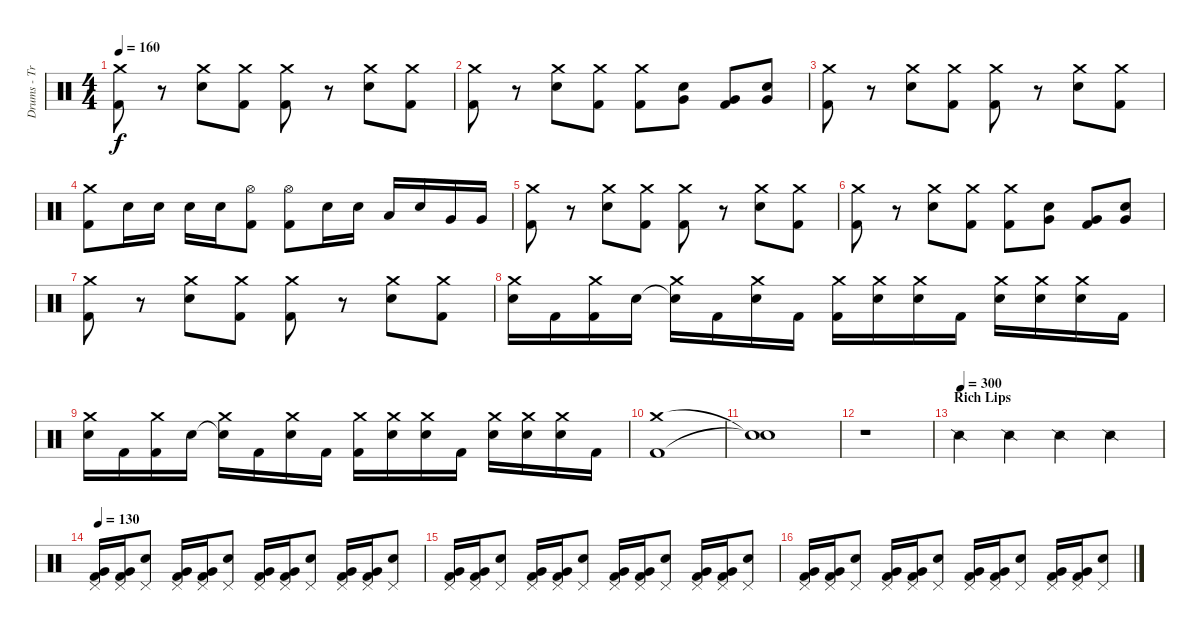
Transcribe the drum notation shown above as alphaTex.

\track ("Drums - Travis Barker" "Drums - Tr") {instrument percussion}
\staff {score}
\articulation defaults
\ts (4 4)
\tempo 160
\clef neutral
\ks c
("Kick (hit) 2" "Crash medium (hit)").8{dy f} r.8 ("Snare (hit) 2" "Crash medium (hit)").8 ("Kick (hit) 2" "Crash medium (hit)").8 ("Kick (hit) 2" "Crash medium (hit)").8 r.8 ("Snare (hit) 2" "Crash medium (hit)").8 ("Kick (hit) 2" "Crash medium (hit)").8 |
("Kick (hit) 2" "Crash medium (hit)").8 r.8 ("Snare (hit) 2" "Crash medium (hit)").8 ("Kick (hit) 2" "Crash medium (hit)").8 ("Kick (hit) 2" "Crash medium (hit)").8 ("Snare (hit) 2" "Very Low Tom (hit)").8 ("Kick (hit) 2" "Very Low Tom (hit)").8 ("Snare (hit) 2" "Very Low Tom (hit)").8 |
("Kick (hit) 2" "Crash medium (hit)").8 r.8 ("Snare (hit) 2" "Crash medium (hit)").8 ("Kick (hit) 2" "Crash medium (hit)").8 ("Kick (hit) 2" "Crash medium (hit)").8 r.8 ("Snare (hit) 2" "Crash medium (hit)").8 ("Kick (hit) 2" "Crash medium (hit)").8 |
("Kick (hit) 2" "Crash medium (hit)").8 "Snare (hit) 2".16 "Snare (hit) 2".16 "Snare (hit) 2".16 "Snare (hit) 2".16 ("Hi-Hat (open)" "Kick (hit) 2").8 ("Hi-Hat (open)" "Kick (hit) 2").8 "Snare (hit) 2".16 "Snare (hit) 2".16 "Low Tom (hit)".16 "Snare (hit) 2".16 "Very Low Tom (hit)".16 "Very Low Tom (hit)".16 |
("Kick (hit) 2" "Crash medium (hit)").8 r.8 ("Snare (hit) 2" "Crash medium (hit)").8 ("Kick (hit) 2" "Crash medium (hit)").8 ("Kick (hit) 2" "Crash medium (hit)").8 r.8 ("Snare (hit) 2" "Crash medium (hit)").8 ("Kick (hit) 2" "Crash medium (hit)").8 |
("Kick (hit) 2" "Crash medium (hit)").8 r.8 ("Snare (hit) 2" "Crash medium (hit)").8 ("Kick (hit) 2" "Crash medium (hit)").8 ("Kick (hit) 2" "Crash medium (hit)").8 ("Snare (hit) 2" "Very Low Tom (hit)").8 ("Kick (hit) 2" "Very Low Tom (hit)").8 ("Snare (hit) 2" "Very Low Tom (hit)").8 |
("Kick (hit) 2" "Crash medium (hit)").8 r.8 ("Snare (hit) 2" "Crash medium (hit)").8 ("Kick (hit) 2" "Crash medium (hit)").8 ("Kick (hit) 2" "Crash medium (hit)").8 r.8 ("Snare (hit) 2" "Crash medium (hit)").8 ("Kick (hit) 2" "Crash medium (hit)").8 |
("Snare (hit) 2" "Crash medium (hit)").16 "Kick (hit) 2".16 ("Kick (hit) 2" "Crash medium (hit)").16 "Snare (hit) 2".16 ("Snare (hit)"{t} "Crash medium (hit)").16 "Kick (hit) 2".16 ("Snare (hit) 2" "Crash medium (hit)").16 "Kick (hit) 2".16 ("Kick (hit) 2" "Crash medium (hit)").16 ("Snare (hit) 2" "Crash medium (hit)").16 ("Snare (hit) 2" "Crash medium (hit)").16 "Kick (hit) 2".16 ("Snare (hit) 2" "Crash medium (hit)").16 ("Snare (hit) 2" "Crash medium (hit)").16 ("Snare (hit) 2" "Crash medium (hit)").16 "Kick (hit) 2".16 |
("Snare (hit) 2" "Crash medium (hit)").16 "Kick (hit) 2".16 ("Kick (hit) 2" "Crash medium (hit)").16 "Snare (hit) 2".16 ("Snare (hit)"{t} "Crash medium (hit)").16 "Kick (hit) 2".16 ("Snare (hit) 2" "Crash medium (hit)").16 "Kick (hit) 2".16 ("Kick (hit) 2" "Crash medium (hit)").16 ("Snare (hit) 2" "Crash medium (hit)").16 ("Snare (hit) 2" "Crash medium (hit)").16 "Kick (hit) 2".16 ("Snare (hit) 2" "Crash medium (hit)").16 ("Snare (hit) 2" "Crash medium (hit)").16 ("Snare (hit) 2" "Crash medium (hit)").16 "Kick (hit) 2".16 |
("Crash medium (hit)" "Kick (hit) 2").1 |
("Snare (hit)"{t} "Snare (hit)"{t}).1 |
r.1 |
\section ("" "Rich Lips")
\tempo (300)
"Snare (side stick) 2".4 "Snare (side stick) 2".4 "Snare (side stick) 2".4 "Snare (side stick) 2".4 |
\tempo 130
("Pedal Hi-Hat (hit)" "Very Low Tom (hit)" "Kick (hit) 2").16 ("Pedal Hi-Hat (hit)" "Very Low Tom (hit)" "Kick (hit) 2").16 ("Pedal Hi-Hat (hit)" "Electric Snare (hit)").8 ("Pedal Hi-Hat (hit)" "Very Low Tom (hit)" "Kick (hit) 2").16 ("Pedal Hi-Hat (hit)" "Very Low Tom (hit)" "Kick (hit) 2").16 ("Pedal Hi-Hat (hit)" "Electric Snare (hit)").8 ("Pedal Hi-Hat (hit)" "Very Low Tom (hit)" "Kick (hit) 2").16 ("Pedal Hi-Hat (hit)" "Very Low Tom (hit)" "Kick (hit) 2").16 ("Pedal Hi-Hat (hit)" "Electric Snare (hit)").8 ("Pedal Hi-Hat (hit)" "Very Low Tom (hit)" "Kick (hit) 2").16 ("Pedal Hi-Hat (hit)" "Very Low Tom (hit)" "Kick (hit) 2").16 ("Pedal Hi-Hat (hit)" "Electric Snare (hit)").8 |
("Pedal Hi-Hat (hit)" "Very Low Tom (hit)" "Kick (hit) 2").16 ("Pedal Hi-Hat (hit)" "Very Low Tom (hit)" "Kick (hit) 2").16 ("Pedal Hi-Hat (hit)" "Electric Snare (hit)").8 ("Pedal Hi-Hat (hit)" "Very Low Tom (hit)" "Kick (hit) 2").16 ("Pedal Hi-Hat (hit)" "Very Low Tom (hit)" "Kick (hit) 2").16 ("Pedal Hi-Hat (hit)" "Electric Snare (hit)").8 ("Pedal Hi-Hat (hit)" "Very Low Tom (hit)" "Kick (hit) 2").16 ("Pedal Hi-Hat (hit)" "Very Low Tom (hit)" "Kick (hit) 2").16 ("Pedal Hi-Hat (hit)" "Electric Snare (hit)").8 ("Pedal Hi-Hat (hit)" "Very Low Tom (hit)" "Kick (hit) 2").16 ("Pedal Hi-Hat (hit)" "Very Low Tom (hit)" "Kick (hit) 2").16 ("Pedal Hi-Hat (hit)" "Electric Snare (hit)").8 |
("Pedal Hi-Hat (hit)" "Very Low Tom (hit)" "Kick (hit) 2").16 ("Pedal Hi-Hat (hit)" "Very Low Tom (hit)" "Kick (hit) 2").16 ("Pedal Hi-Hat (hit)" "Electric Snare (hit)").8 ("Pedal Hi-Hat (hit)" "Very Low Tom (hit)" "Kick (hit) 2").16 ("Pedal Hi-Hat (hit)" "Very Low Tom (hit)" "Kick (hit) 2").16 ("Pedal Hi-Hat (hit)" "Electric Snare (hit)").8 ("Pedal Hi-Hat (hit)" "Very Low Tom (hit)" "Kick (hit) 2").16 ("Pedal Hi-Hat (hit)" "Very Low Tom (hit)" "Kick (hit) 2").16 ("Pedal Hi-Hat (hit)" "Electric Snare (hit)").8 ("Pedal Hi-Hat (hit)" "Very Low Tom (hit)" "Kick (hit) 2").16 ("Pedal Hi-Hat (hit)" "Very Low Tom (hit)" "Kick (hit) 2").16 ("Pedal Hi-Hat (hit)" "Electric Snare (hit)").8
